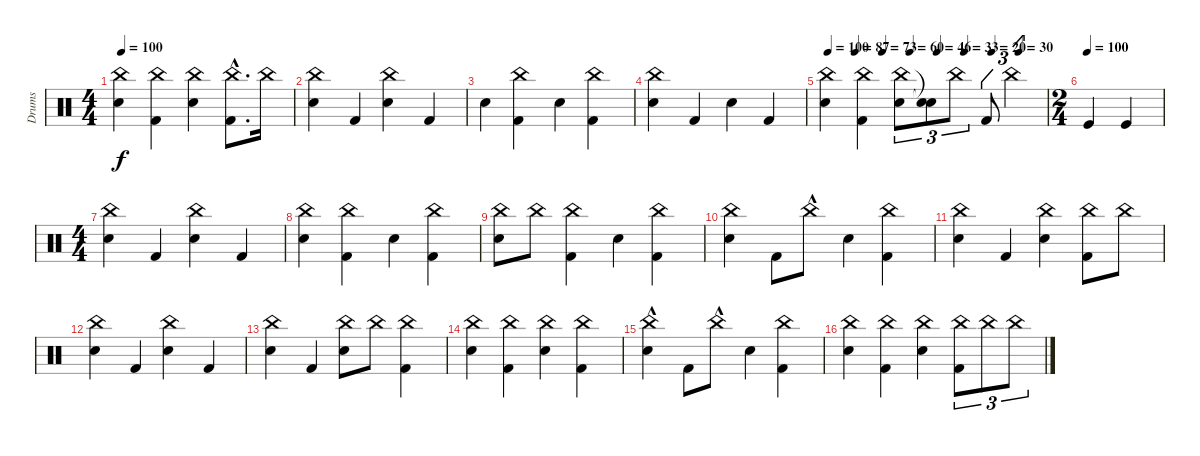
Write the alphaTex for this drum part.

\track ("Drums" "Drums") {instrument percussion}
\staff {score}
\articulation defaults
\ts (4 4)
\tempo 100
\clef neutral
\ks c
("China (hit)" "Snare (hit) 2").4{dy f} ("China (hit)" "Kick (hit) 2").4 ("China (hit)" "Snare (hit) 2").4 ("China (hit)"{hac} "Kick (hit) 2").8{d} "China (hit)".16 |
("China (hit)" "Snare (hit) 2").4 "Kick (hit) 2".4 ("China (hit)" "Snare (hit) 2").4 "Kick (hit) 2".4 |
"Snare (hit) 2".4 ("China (hit)" "Kick (hit) 2").4 "Snare (hit) 2".4 ("China (hit)" "Kick (hit) 2").4 |
("China (hit)" "Snare (hit) 2").4 "Kick (hit) 2".4 "Snare (hit) 2".4 "Kick (hit) 2".4 |
\tempo 100
\tempo (87 0.125)
\tempo (73 0.25)
\tempo (60 0.375)
\tempo (46 0.5)
\tempo (33 0.625)
\tempo (20 0.75)
\tempo (30 0.875)
("China (hit)" "Snare (hit) 2").4 ("China (hit)" "Kick (hit) 2").4 ("China (hit)" "Snare (hit) 2").8{tu (3 2)} ("Snare (hit)"{t} "Snare (hit)"{t}).8{tu (3 2)} "China (hit)".8{tu (3 2)} "Kick (hit) 2".8{tu (3 2)} "China (hit)".4{tu (3 2)} |
\ts (2 4)
\tempo (100)
"Kick (hit)".4 "Kick (hit)".4 |
\ts (4 4)
("China (hit)" "Snare (hit) 2").4 "Kick (hit) 2".4 ("China (hit)" "Snare (hit) 2").4 "Kick (hit) 2".4 |
("China (hit)" "Snare (hit) 2").4 ("China (hit)" "Kick (hit) 2").4 "Snare (hit) 2".4 ("China (hit)" "Kick (hit) 2").4 |
("China (hit)" "Snare (hit) 2").8 "China (hit)".8 ("China (hit)" "Kick (hit) 2").4 "Snare (hit) 2".4 ("China (hit)" "Kick (hit) 2").4 |
("China (hit)" "Snare (hit) 2").4 "Kick (hit) 2".8 "China (hit)"{hac}.8 "Snare (hit) 2".4 ("China (hit)" "Kick (hit) 2").4 |
("China (hit)" "Snare (hit) 2").4 "Kick (hit) 2".4 ("China (hit)" "Snare (hit) 2").4 ("China (hit)" "Kick (hit) 2").8 "China (hit)".8 |
("China (hit)" "Snare (hit) 2").4 "Kick (hit) 2".4 ("China (hit)" "Snare (hit) 2").4 "Kick (hit) 2".4 |
("China (hit)" "Snare (hit) 2").4 "Kick (hit) 2".4 ("China (hit)" "Snare (hit) 2").8 "China (hit)".8 ("China (hit)" "Kick (hit) 2").4 |
("China (hit)" "Snare (hit) 2").4 ("China (hit)" "Kick (hit) 2").4 ("China (hit)" "Snare (hit) 2").4 ("China (hit)" "Kick (hit) 2").4 |
("China (hit)"{hac} "Snare (hit) 2").4 "Kick (hit) 2".8 "China (hit)"{hac}.8 "Snare (hit) 2".4 ("China (hit)" "Kick (hit) 2").4 |
("China (hit)" "Snare (hit) 2").4 ("China (hit)" "Kick (hit) 2").4 ("China (hit)" "Snare (hit) 2").4 ("China (hit)" "Kick (hit) 2").8{tu (3 2)} "China (hit)".8{tu (3 2)} "China (hit)".8{tu (3 2)}
